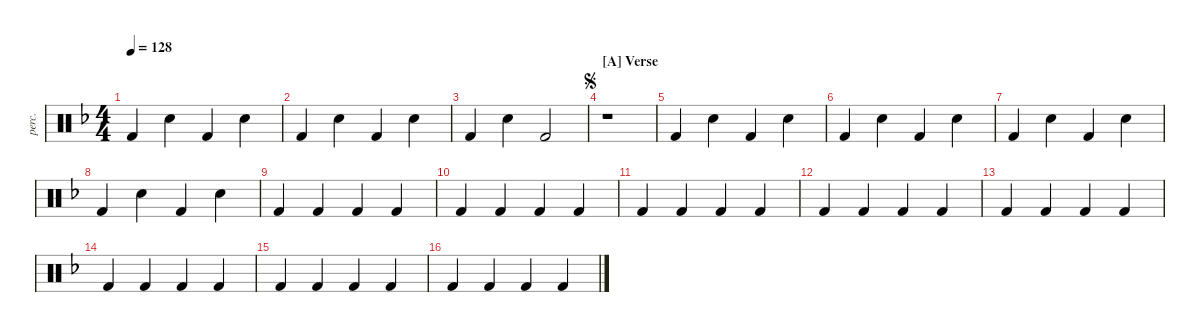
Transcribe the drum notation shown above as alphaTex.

\defaultSystemsLayout 2
\hideDynamics
\bracketExtendMode groupsimilarinstruments
\otherSystemsTrackNameOrientation horizontal
\track ("Guitar Percussion" "perc.") {instrument percussion}
\staff {score}
\articulation defaults
\ts (4 4)
\scale
1.04549
\tempo 128
\accidentals auto
\clef neutral
\ottava regular
\simile none
\ks dminor "Kick (hit) 2"{acc forcenatural}.4{dy mf} "Snare (hit) 2"{acc forcenatural}.4 "Kick (hit) 2"{acc forcenatural}.4 "Snare (hit) 2"{acc forcenatural}.4
|
\scale
0.954505 "Kick (hit) 2"{acc forcenatural}.4 "Snare (hit) 2"{acc forcenatural}.4 "Kick (hit) 2"{acc forcenatural}.4 "Snare (hit) 2"{acc forcenatural}.4 |
\scale
1.04992 "Kick (hit) 2"{acc forcenatural}.4 "Snare (hit) 2"{acc forcenatural}.4 "Kick (hit) 2"{acc forcenatural}.2 |
\section ("A" "Verse")
\scale
0.950084
\jump segno
r.1 |
\scale
1.04549 "Kick (hit) 2"{acc forcenatural}.4 "Snare (hit) 2"{acc forcenatural}.4 "Kick (hit) 2"{acc forcenatural}.4 "Snare (hit) 2"{acc forcenatural}.4 |
\scale
0.954505 "Kick (hit) 2"{acc forcenatural}.4 "Snare (hit) 2"{acc forcenatural}.4 "Kick (hit) 2"{acc forcenatural}.4 "Snare (hit) 2"{acc forcenatural}.4 |
\scale
1.04549 "Kick (hit) 2"{acc forcenatural}.4 "Snare (hit) 2"{acc forcenatural}.4 "Kick (hit) 2"{acc forcenatural}.4 "Snare (hit) 2"{acc forcenatural}.4 |
\scale
0.954505 "Kick (hit) 2"{acc forcenatural}.4 "Snare (hit) 2"{acc forcenatural}.4 "Kick (hit) 2"{acc forcenatural}.4 "Snare (hit) 2"{acc forcenatural}.4 |
\scale
1.04549 "Kick (hit) 2"{acc forcenatural}.4 "Kick (hit) 2"{acc forcenatural}.4 "Kick (hit) 2"{acc forcenatural}.4 "Kick (hit) 2"{acc forcenatural}.4 |
\scale
0.954505 "Kick (hit) 2"{acc forcenatural}.4 "Kick (hit) 2"{acc forcenatural}.4 "Kick (hit) 2"{acc forcenatural}.4 "Kick (hit) 2"{acc forcenatural}.4 |
\scale
1.04549 "Kick (hit) 2"{acc forcenatural}.4 "Kick (hit) 2"{acc forcenatural}.4 "Kick (hit) 2"{acc forcenatural}.4 "Kick (hit) 2"{acc forcenatural}.4 |
\scale
0.954505 "Kick (hit) 2"{acc forcenatural}.4 "Kick (hit) 2"{acc forcenatural}.4 "Kick (hit) 2"{acc forcenatural}.4 "Kick (hit) 2"{acc forcenatural}.4 |
\scale
1.04549 "Kick (hit) 2"{acc forcenatural}.4 "Kick (hit) 2"{acc forcenatural}.4 "Kick (hit) 2"{acc forcenatural}.4 "Kick (hit) 2"{acc forcenatural}.4 |
\scale
0.954505 "Kick (hit) 2"{acc forcenatural}.4 "Kick (hit) 2"{acc forcenatural}.4 "Kick (hit) 2"{acc forcenatural}.4 "Kick (hit) 2"{acc forcenatural}.4 |
\scale
1.04549 "Kick (hit) 2"{acc forcenatural}.4 "Kick (hit) 2"{acc forcenatural}.4 "Kick (hit) 2"{acc forcenatural}.4 "Kick (hit) 2"{acc forcenatural}.4 |
\scale
0.954505 "Kick (hit) 2"{acc forcenatural}.4 "Kick (hit) 2"{acc forcenatural}.4 "Kick (hit) 2"{acc forcenatural}.4 "Kick (hit) 2"{acc forcenatural}.4
